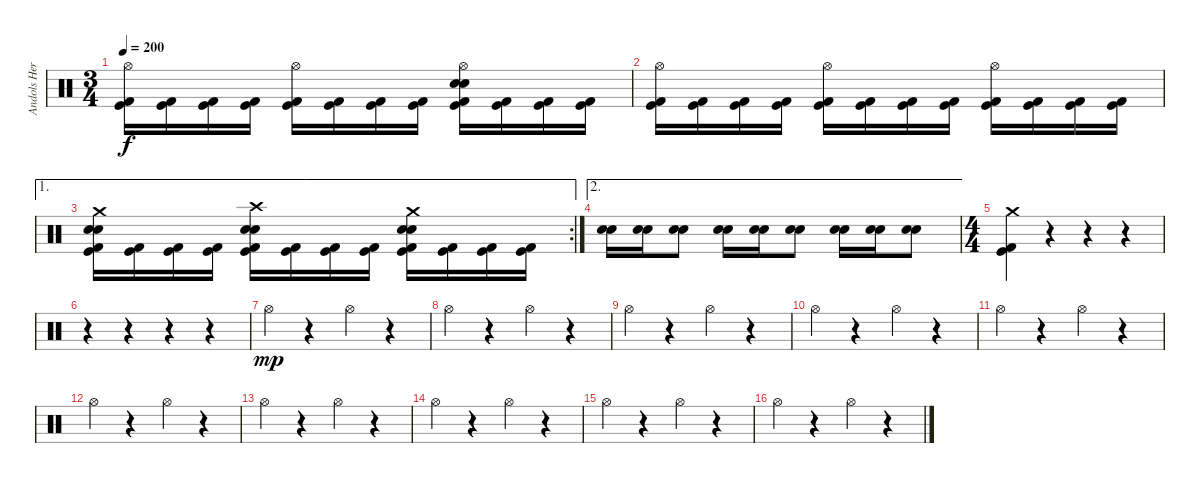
\track ("Andols Herrick" "Andols Her") {instrument percussion}
\staff {score}
\articulation defaults
\ts (3 4)
\tempo 200
\clef neutral
\ks c
("Hi-Hat (open)" "Kick (hit) 2" "Kick (hit)").16{dy f} ("Kick (hit) 2" "Kick (hit)").16 ("Kick (hit) 2" "Kick (hit)").16 ("Kick (hit) 2" "Kick (hit)").16 ("Hi-Hat (open)" "Kick (hit) 2" "Kick (hit)").16 ("Kick (hit) 2" "Kick (hit)").16 ("Kick (hit) 2" "Kick (hit)").16 ("Kick (hit) 2" "Kick (hit)").16 ("Hi-Hat (open)" "Electric Snare (hit)" "Snare (hit) 2" "Kick (hit) 2" "Kick (hit)").16 ("Kick (hit) 2" "Kick (hit)").16 ("Kick (hit) 2" "Kick (hit)").16 ("Kick (hit) 2" "Kick (hit)").16 |
("Hi-Hat (open)" "Kick (hit) 2" "Kick (hit)").16 ("Kick (hit) 2" "Kick (hit)").16 ("Kick (hit) 2" "Kick (hit)").16 ("Kick (hit) 2" "Kick (hit)").16 ("Hi-Hat (open)" "Kick (hit) 2" "Kick (hit)").16 ("Kick (hit) 2" "Kick (hit)").16 ("Kick (hit) 2" "Kick (hit)").16 ("Kick (hit) 2" "Kick (hit)").16 ("Hi-Hat (open)" "Kick (hit) 2" "Kick (hit)").16 ("Kick (hit) 2" "Kick (hit)").16 ("Kick (hit) 2" "Kick (hit)").16 ("Kick (hit) 2" "Kick (hit)").16 |
\ae 1
\rc 2
("Crash medium (hit)" "Electric Snare (hit)" "Snare (hit) 2" "Kick (hit) 2" "Kick (hit)").16 ("Kick (hit) 2" "Kick (hit)").16 ("Kick (hit) 2" "Kick (hit)").16 ("Kick (hit) 2" "Kick (hit)").16 ("Crash high (hit)" "Electric Snare (hit)" "Snare (hit) 2" "Kick (hit) 2" "Kick (hit)").16 ("Kick (hit) 2" "Kick (hit)").16 ("Kick (hit) 2" "Kick (hit)").16 ("Kick (hit) 2" "Kick (hit)").16 ("Crash medium (hit)" "Electric Snare (hit)" "Snare (hit) 2" "Kick (hit) 2" "Kick (hit)").16 ("Kick (hit) 2" "Kick (hit)").16 ("Kick (hit) 2" "Kick (hit)").16 ("Kick (hit) 2" "Kick (hit)").16 |
\ae 2
("Electric Snare (hit)" "Snare (hit) 2").16 ("Electric Snare (hit)" "Snare (hit) 2").16 ("Electric Snare (hit)" "Snare (hit) 2").8 ("Electric Snare (hit)" "Snare (hit) 2").16 ("Electric Snare (hit)" "Snare (hit) 2").16 ("Electric Snare (hit)" "Snare (hit) 2").8 ("Electric Snare (hit)" "Snare (hit) 2").16 ("Electric Snare (hit)" "Snare (hit) 2").16 ("Electric Snare (hit)" "Snare (hit) 2").8 |
\ts (4 4)
("Crash medium (hit)" "Kick (hit) 2" "Kick (hit)").4 r.4 r.4 r.4 |
r.4 r.4 r.4 r.4 |
"Hi-Hat (open)".4{dy mp} r.4 "Hi-Hat (open)".4 r.4 |
"Hi-Hat (open)".4 r.4 "Hi-Hat (open)".4 r.4 |
"Hi-Hat (open)".4 r.4 "Hi-Hat (open)".4 r.4 |
"Hi-Hat (open)".4 r.4 "Hi-Hat (open)".4 r.4 |
"Hi-Hat (open)".4 r.4 "Hi-Hat (open)".4 r.4 |
"Hi-Hat (open)".4 r.4 "Hi-Hat (open)".4 r.4 |
"Hi-Hat (open)".4 r.4 "Hi-Hat (open)".4 r.4 |
"Hi-Hat (open)".4 r.4 "Hi-Hat (open)".4 r.4 |
"Hi-Hat (open)".4 r.4 "Hi-Hat (open)".4 r.4 |
"Hi-Hat (open)".4 r.4 "Hi-Hat (open)".4 r.4
